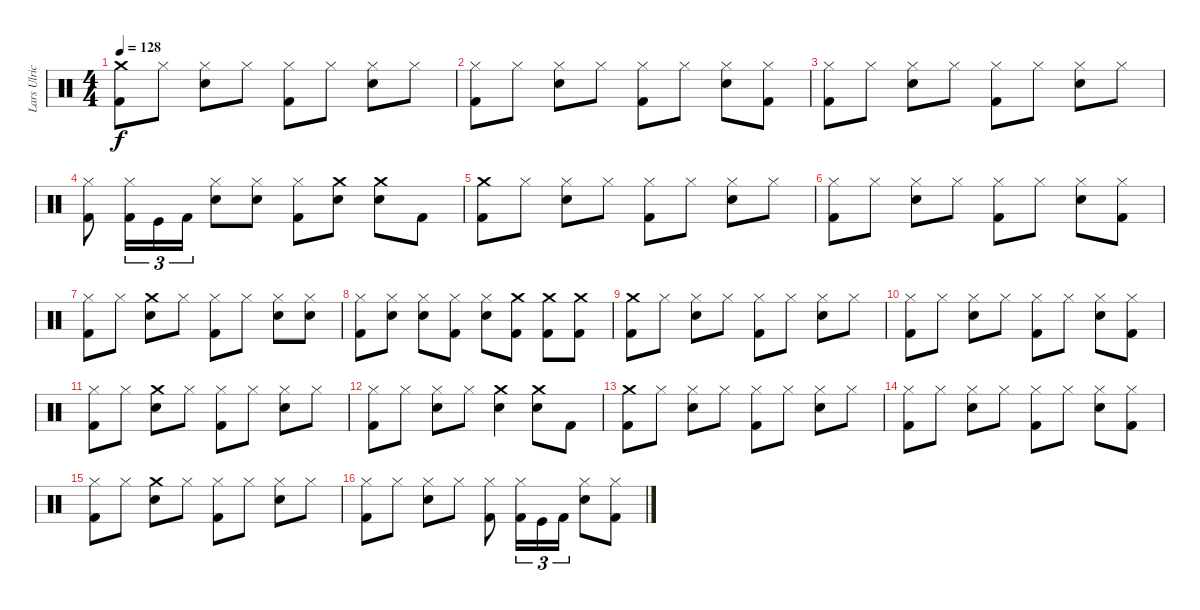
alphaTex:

\track ("Lars Ulrich" "Lars Ulric") {instrument percussion}
\staff {score}
\articulation defaults
\ts (4 4)
\tempo 128
\clef neutral
\ks c
("Crash medium (hit)" "Kick (hit) 2").8{dy f} "Hi-Hat (closed)".8 ("Snare (hit) 2" "Hi-Hat (closed)").8 "Hi-Hat (closed)".8 ("Hi-Hat (closed)" "Kick (hit) 2").8 "Hi-Hat (closed)".8 ("Snare (hit) 2" "Hi-Hat (closed)").8 "Hi-Hat (closed)".8 |
("Hi-Hat (closed)" "Kick (hit) 2").8 "Hi-Hat (closed)".8 ("Snare (hit) 2" "Hi-Hat (closed)").8 "Hi-Hat (closed)".8 ("Hi-Hat (closed)" "Kick (hit) 2").8 "Hi-Hat (closed)".8 ("Snare (hit) 2" "Hi-Hat (closed)").8 ("Hi-Hat (closed)" "Kick (hit) 2").8 |
("Hi-Hat (closed)" "Kick (hit) 2").8 "Hi-Hat (closed)".8 ("Snare (hit) 2" "Hi-Hat (closed)").8 "Hi-Hat (closed)".8 ("Hi-Hat (closed)" "Kick (hit) 2").8 "Hi-Hat (closed)".8 ("Snare (hit) 2" "Hi-Hat (closed)").8 "Hi-Hat (closed)".8 |
("Kick (hit) 2" "Hi-Hat (closed)").8 ("Kick (hit) 2" "Hi-Hat (closed)").16{tu (3 2)} "Kick (hit)".16{tu (3 2)} "Kick (hit) 2".16{tu (3 2)} ("Snare (hit) 2" "Hi-Hat (closed)").8 ("Snare (hit) 2" "Hi-Hat (closed)").8 ("Kick (hit) 2" "Hi-Hat (closed)").8 ("Crash medium (hit)" "Snare (hit) 2").8 ("Snare (hit) 2" "Crash medium (hit)").8 "Kick (hit) 2".8 |
("Crash medium (hit)" "Kick (hit) 2").8 "Hi-Hat (closed)".8 ("Snare (hit) 2" "Hi-Hat (closed)").8 "Hi-Hat (closed)".8 ("Hi-Hat (closed)" "Kick (hit) 2").8 "Hi-Hat (closed)".8 ("Snare (hit) 2" "Hi-Hat (closed)").8 "Hi-Hat (closed)".8 |
("Hi-Hat (closed)" "Kick (hit) 2").8 "Hi-Hat (closed)".8 ("Snare (hit) 2" "Hi-Hat (closed)").8 "Hi-Hat (closed)".8 ("Hi-Hat (closed)" "Kick (hit) 2").8 "Hi-Hat (closed)".8 ("Snare (hit) 2" "Hi-Hat (closed)").8 ("Hi-Hat (closed)" "Kick (hit) 2").8 |
("Hi-Hat (closed)" "Kick (hit) 2").8 "Hi-Hat (closed)".8 ("Crash medium (hit)" "Snare (hit) 2").8 "Hi-Hat (closed)".8 ("Hi-Hat (closed)" "Kick (hit) 2").8 "Hi-Hat (closed)".8 ("Snare (hit) 2" "Hi-Hat (closed)").8 ("Snare (hit) 2" "Hi-Hat (closed)").8 |
("Kick (hit) 2" "Hi-Hat (closed)").8 ("Snare (hit) 2" "Hi-Hat (closed)").8 ("Snare (hit) 2" "Hi-Hat (closed)").8 ("Hi-Hat (closed)" "Kick (hit) 2").8 ("Snare (hit) 2" "Hi-Hat (closed)").8 ("Crash medium (hit)" "Kick (hit) 2").8 ("Crash medium (hit)" "Kick (hit) 2").8 ("Crash medium (hit)" "Kick (hit) 2").8 |
("Crash medium (hit)" "Kick (hit) 2").8 "Hi-Hat (closed)".8 ("Snare (hit) 2" "Hi-Hat (closed)").8 "Hi-Hat (closed)".8 ("Hi-Hat (closed)" "Kick (hit) 2").8 "Hi-Hat (closed)".8 ("Snare (hit) 2" "Hi-Hat (closed)").8 "Hi-Hat (closed)".8 |
("Hi-Hat (closed)" "Kick (hit) 2").8 "Hi-Hat (closed)".8 ("Snare (hit) 2" "Hi-Hat (closed)").8 "Hi-Hat (closed)".8 ("Hi-Hat (closed)" "Kick (hit) 2").8 "Hi-Hat (closed)".8 ("Snare (hit) 2" "Hi-Hat (closed)").8 ("Hi-Hat (closed)" "Kick (hit) 2").8 |
("Hi-Hat (closed)" "Kick (hit) 2").8 "Hi-Hat (closed)".8 ("Crash medium (hit)" "Snare (hit) 2").8 "Hi-Hat (closed)".8 ("Hi-Hat (closed)" "Kick (hit) 2").8 "Hi-Hat (closed)".8 ("Snare (hit) 2" "Hi-Hat (closed)").8 "Hi-Hat (closed)".8 |
("Hi-Hat (closed)" "Kick (hit) 2").8 "Hi-Hat (closed)".8 ("Hi-Hat (closed)" "Snare (hit) 2").8 "Hi-Hat (closed)".8 ("Crash medium (hit)" "Snare (hit) 2").4 ("Crash medium (hit)" "Snare (hit) 2").8 "Kick (hit) 2".8 |
("Crash medium (hit)" "Kick (hit) 2").8 "Hi-Hat (closed)".8 ("Snare (hit) 2" "Hi-Hat (closed)").8 "Hi-Hat (closed)".8 ("Hi-Hat (closed)" "Kick (hit) 2").8 "Hi-Hat (closed)".8 ("Snare (hit) 2" "Hi-Hat (closed)").8 "Hi-Hat (closed)".8 |
("Hi-Hat (closed)" "Kick (hit) 2").8 "Hi-Hat (closed)".8 ("Snare (hit) 2" "Hi-Hat (closed)").8 "Hi-Hat (closed)".8 ("Hi-Hat (closed)" "Kick (hit) 2").8 "Hi-Hat (closed)".8 ("Snare (hit) 2" "Hi-Hat (closed)").8 ("Hi-Hat (closed)" "Kick (hit) 2").8 |
("Hi-Hat (closed)" "Kick (hit) 2").8 "Hi-Hat (closed)".8 ("Crash medium (hit)" "Snare (hit) 2").8 "Hi-Hat (closed)".8 ("Hi-Hat (closed)" "Kick (hit) 2").8 "Hi-Hat (closed)".8 ("Snare (hit) 2" "Hi-Hat (closed)").8 "Hi-Hat (closed)".8 |
("Kick (hit) 2" "Hi-Hat (closed)").8 "Hi-Hat (closed)".8 ("Hi-Hat (closed)" "Snare (hit) 2").8 "Hi-Hat (closed)".8 ("Kick (hit) 2" "Hi-Hat (closed)").8 ("Kick (hit) 2" "Hi-Hat (closed)").16{tu (3 2)} "Kick (hit)".16{tu (3 2)} "Kick (hit) 2".16{tu (3 2)} ("Snare (hit) 2" "Hi-Hat (closed)").8 ("Kick (hit) 2" "Hi-Hat (closed)").8
